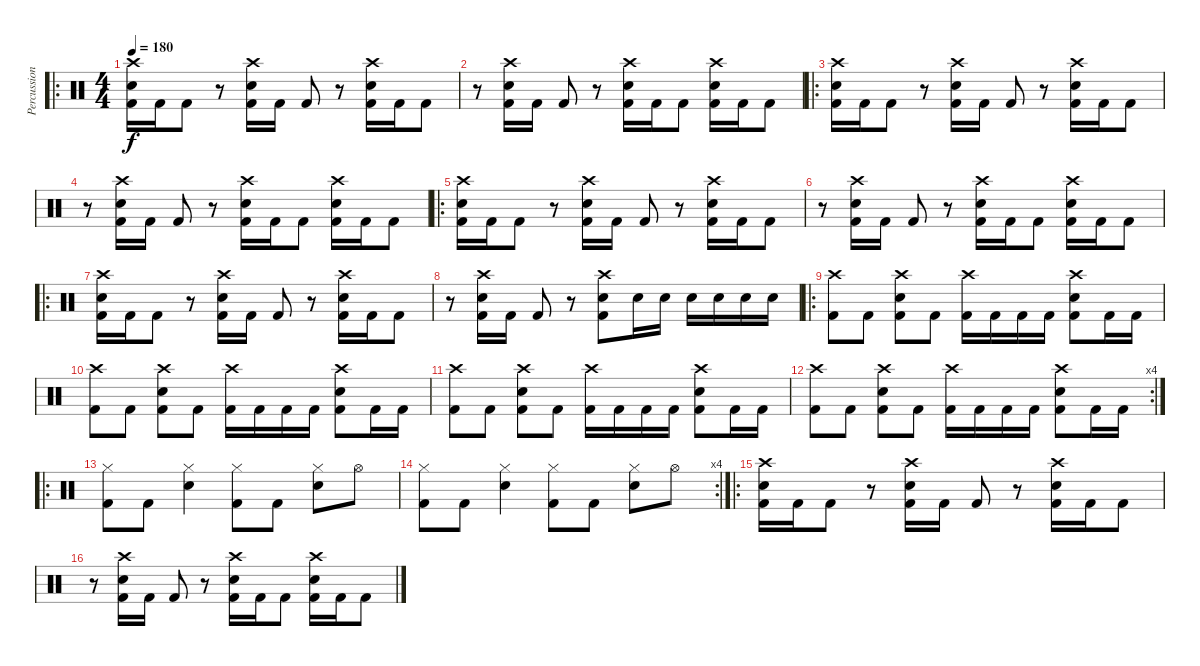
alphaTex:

\track ("Percussion" "Percussion") {instrument percussion}
\staff {score}
\articulation defaults
\ro
\ts (4 4)
\tempo 180
\clef neutral
\ks c
("Crash high (hit)" "Electric Snare (hit)" "Kick (hit) 2").16{dy f} "Kick (hit) 2".16 "Kick (hit) 2".8 r.8 ("Crash high (hit)" "Electric Snare (hit)" "Kick (hit) 2").16 "Kick (hit) 2".16 "Kick (hit) 2".8 r.8 ("Crash high (hit)" "Electric Snare (hit)" "Kick (hit) 2").16 "Kick (hit) 2".16 "Kick (hit) 2".8 |
r.8 ("Crash high (hit)" "Electric Snare (hit)" "Kick (hit) 2").16 "Kick (hit) 2".16 "Kick (hit) 2".8 r.8 ("Crash high (hit)" "Electric Snare (hit)" "Kick (hit) 2").16 "Kick (hit) 2".16 "Kick (hit) 2".8 ("Crash high (hit)" "Electric Snare (hit)" "Kick (hit) 2").16 "Kick (hit) 2".16 "Kick (hit) 2".8 |
\ro
("Crash high (hit)" "Electric Snare (hit)" "Kick (hit) 2").16 "Kick (hit) 2".16 "Kick (hit) 2".8 r.8 ("Crash high (hit)" "Electric Snare (hit)" "Kick (hit) 2").16 "Kick (hit) 2".16 "Kick (hit) 2".8 r.8 ("Crash high (hit)" "Electric Snare (hit)" "Kick (hit) 2").16 "Kick (hit) 2".16 "Kick (hit) 2".8 |
r.8 ("Crash high (hit)" "Electric Snare (hit)" "Kick (hit) 2").16 "Kick (hit) 2".16 "Kick (hit) 2".8 r.8 ("Crash high (hit)" "Electric Snare (hit)" "Kick (hit) 2").16 "Kick (hit) 2".16 "Kick (hit) 2".8 ("Crash high (hit)" "Electric Snare (hit)" "Kick (hit) 2").16 "Kick (hit) 2".16 "Kick (hit) 2".8 |
\ro
("Crash high (hit)" "Electric Snare (hit)" "Kick (hit) 2").16 "Kick (hit) 2".16 "Kick (hit) 2".8 r.8 ("Crash high (hit)" "Electric Snare (hit)" "Kick (hit) 2").16 "Kick (hit) 2".16 "Kick (hit) 2".8 r.8 ("Crash high (hit)" "Electric Snare (hit)" "Kick (hit) 2").16 "Kick (hit) 2".16 "Kick (hit) 2".8 |
r.8 ("Crash high (hit)" "Electric Snare (hit)" "Kick (hit) 2").16 "Kick (hit) 2".16 "Kick (hit) 2".8 r.8 ("Crash high (hit)" "Electric Snare (hit)" "Kick (hit) 2").16 "Kick (hit) 2".16 "Kick (hit) 2".8 ("Crash high (hit)" "Electric Snare (hit)" "Kick (hit) 2").16 "Kick (hit) 2".16 "Kick (hit) 2".8 |
\ro
("Crash high (hit)" "Electric Snare (hit)" "Kick (hit) 2").16 "Kick (hit) 2".16 "Kick (hit) 2".8 r.8 ("Crash high (hit)" "Electric Snare (hit)" "Kick (hit) 2").16 "Kick (hit) 2".16 "Kick (hit) 2".8 r.8 ("Crash high (hit)" "Electric Snare (hit)" "Kick (hit) 2").16 "Kick (hit) 2".16 "Kick (hit) 2".8 |
r.8 ("Crash high (hit)" "Electric Snare (hit)" "Kick (hit) 2").16 "Kick (hit) 2".16 "Kick (hit) 2".8 r.8 ("Crash high (hit)" "Electric Snare (hit)" "Kick (hit) 2").8 "Electric Snare (hit)".16 "Electric Snare (hit)".16 "Electric Snare (hit)".16 "Electric Snare (hit)".16 "Electric Snare (hit)".16 "Electric Snare (hit)".16 |
\ro
("Crash high (hit)" "Kick (hit) 2").8 "Kick (hit) 2".8 ("Crash high (hit)" "Electric Snare (hit)" "Kick (hit) 2").8 "Kick (hit) 2".8 ("Crash high (hit)" "Kick (hit) 2").16 "Kick (hit) 2".16 "Kick (hit) 2".16 "Kick (hit) 2".16 ("Crash high (hit)" "Electric Snare (hit)" "Kick (hit) 2").8 "Kick (hit) 2".16 "Kick (hit) 2".16 |
("Crash high (hit)" "Kick (hit) 2").8 "Kick (hit) 2".8 ("Crash high (hit)" "Electric Snare (hit)" "Kick (hit) 2").8 "Kick (hit) 2".8 ("Crash high (hit)" "Kick (hit) 2").16 "Kick (hit) 2".16 "Kick (hit) 2".16 "Kick (hit) 2".16 ("Crash high (hit)" "Electric Snare (hit)" "Kick (hit) 2").8 "Kick (hit) 2".16 "Kick (hit) 2".16 |
("Crash high (hit)" "Kick (hit) 2").8 "Kick (hit) 2".8 ("Crash high (hit)" "Electric Snare (hit)" "Kick (hit) 2").8 "Kick (hit) 2".8 ("Crash high (hit)" "Kick (hit) 2").16 "Kick (hit) 2".16 "Kick (hit) 2".16 "Kick (hit) 2".16 ("Crash high (hit)" "Electric Snare (hit)" "Kick (hit) 2").8 "Kick (hit) 2".16 "Kick (hit) 2".16 |
\rc 4
("Crash high (hit)" "Kick (hit) 2").8 "Kick (hit) 2".8 ("Crash high (hit)" "Electric Snare (hit)" "Kick (hit) 2").8 "Kick (hit) 2".8 ("Crash high (hit)" "Kick (hit) 2").16 "Kick (hit) 2".16 "Kick (hit) 2".16 "Kick (hit) 2".16 ("Crash high (hit)" "Electric Snare (hit)" "Kick (hit) 2").8 "Kick (hit) 2".16 "Kick (hit) 2".16 |
\ro
("Hi-Hat (closed)" "Kick (hit) 2").8 "Kick (hit) 2".8 ("Hi-Hat (closed)" "Electric Snare (hit)").4 ("Hi-Hat (closed)" "Kick (hit) 2").8 "Kick (hit) 2".8 ("Hi-Hat (closed)" "Electric Snare (hit)").8 "Hi-Hat (open)".8 |
\rc 4
("Hi-Hat (closed)" "Kick (hit) 2").8 "Kick (hit) 2".8 ("Hi-Hat (closed)" "Electric Snare (hit)").4 ("Hi-Hat (closed)" "Kick (hit) 2").8 "Kick (hit) 2".8 ("Hi-Hat (closed)" "Electric Snare (hit)").8 "Hi-Hat (open)".8 |
\ro
("Crash high (hit)" "Electric Snare (hit)" "Kick (hit) 2").16 "Kick (hit) 2".16 "Kick (hit) 2".8 r.8 ("Crash high (hit)" "Electric Snare (hit)" "Kick (hit) 2").16 "Kick (hit) 2".16 "Kick (hit) 2".8 r.8 ("Crash high (hit)" "Electric Snare (hit)" "Kick (hit) 2").16 "Kick (hit) 2".16 "Kick (hit) 2".8 |
r.8 ("Crash high (hit)" "Electric Snare (hit)" "Kick (hit) 2").16 "Kick (hit) 2".16 "Kick (hit) 2".8 r.8 ("Crash high (hit)" "Electric Snare (hit)" "Kick (hit) 2").16 "Kick (hit) 2".16 "Kick (hit) 2".8 ("Crash high (hit)" "Electric Snare (hit)" "Kick (hit) 2").16 "Kick (hit) 2".16 "Kick (hit) 2".8
